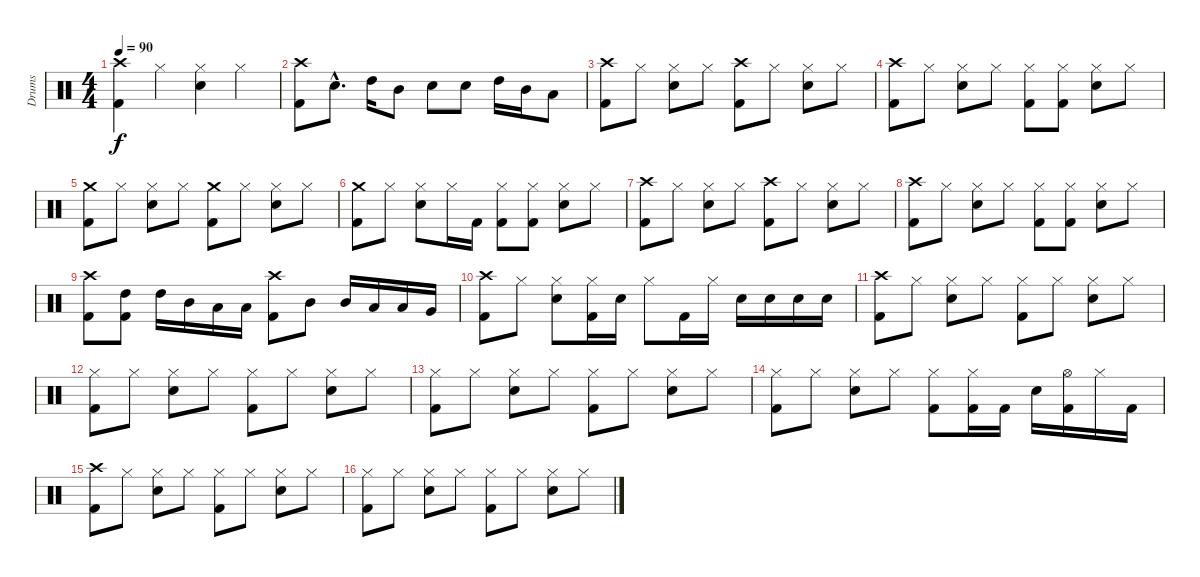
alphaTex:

\track ("Drums" "Drums") {instrument percussion}
\staff {score}
\articulation defaults
\ts (4 4)
\tempo 90
\clef neutral
\ks c
("Crash high (hit)" "Kick (hit) 2").4{dy f} "Hi-Hat (closed)".4 ("Hi-Hat (closed)" "Snare (hit) 2").4 "Hi-Hat (closed)".4 |
("Crash high (hit)" "Kick (hit) 2").8 "Snare (hit) 2"{hac}.8{d} "High Tom (hit)".16 "Mid Tom (hit)".8 "Snare (hit) 2".8 "Snare (hit) 2".8 "High Tom (hit)".16 "Mid Tom (hit)".16 "Low Tom (hit)".8 |
("Crash high (hit)" "Kick (hit) 2").8 "Hi-Hat (closed)".8 ("Hi-Hat (closed)" "Snare (hit) 2").8 "Hi-Hat (closed)".8 ("Crash high (hit)" "Kick (hit) 2").8 "Hi-Hat (closed)".8 ("Hi-Hat (closed)" "Snare (hit) 2").8 "Hi-Hat (closed)".8 |
("Crash high (hit)" "Kick (hit) 2").8 "Hi-Hat (closed)".8 ("Hi-Hat (closed)" "Snare (hit) 2").8 "Hi-Hat (closed)".8 ("Hi-Hat (closed)" "Kick (hit) 2").8 ("Hi-Hat (closed)" "Kick (hit) 2").8 ("Hi-Hat (closed)" "Snare (hit) 2").8 "Hi-Hat (closed)".8 |
("Crash medium (hit)" "Kick (hit) 2").8 "Hi-Hat (closed)".8 ("Hi-Hat (closed)" "Snare (hit) 2").8 "Hi-Hat (closed)".8 ("Crash medium (hit)" "Kick (hit) 2").8 "Hi-Hat (closed)".8 ("Hi-Hat (closed)" "Snare (hit) 2").8 "Hi-Hat (closed)".8 |
("Crash medium (hit)" "Kick (hit) 2").8 "Hi-Hat (closed)".8 ("Hi-Hat (closed)" "Snare (hit) 2").8 "Hi-Hat (closed)".16 "Kick (hit) 2".16 ("Hi-Hat (closed)" "Kick (hit) 2").8 ("Hi-Hat (closed)" "Kick (hit) 2").8 ("Hi-Hat (closed)" "Snare (hit) 2").8 "Hi-Hat (closed)".8 |
("Crash high (hit)" "Kick (hit) 2").8 "Hi-Hat (closed)".8 ("Hi-Hat (closed)" "Snare (hit) 2").8 "Hi-Hat (closed)".8 ("Crash high (hit)" "Kick (hit) 2").8 "Hi-Hat (closed)".8 ("Hi-Hat (closed)" "Snare (hit) 2").8 "Hi-Hat (closed)".8 |
("Crash high (hit)" "Kick (hit) 2").8 "Hi-Hat (closed)".8 ("Hi-Hat (closed)" "Snare (hit) 2").8 "Hi-Hat (closed)".8 ("Hi-Hat (closed)" "Kick (hit) 2").8 ("Hi-Hat (closed)" "Kick (hit) 2").8 ("Hi-Hat (closed)" "Snare (hit) 2").8 "Hi-Hat (closed)".8 |
("Crash high (hit)" "Kick (hit) 2").8 ("High Tom (hit)" "Kick (hit) 2").8 "High Tom (hit)".16 "Mid Tom (hit)".16 "Low Tom (hit)".16 "Low Floor Tom (hit)".16 ("Crash high (hit)" "Kick (hit) 2").8 "Mid Tom (hit)".8 "Mid Tom (hit)".16 "Low Tom (hit)".16 "Low Floor Tom (hit)".16 "Very Low Tom (hit)".16 |
("Crash high (hit)" "Kick (hit) 2").8 "Hi-Hat (closed)".8 ("Hi-Hat (closed)" "Snare (hit) 2").8 ("Hi-Hat (closed)" "Kick (hit) 2").16 "Snare (hit) 2".16 "Hi-Hat (closed)".8 "Kick (hit) 2".16 "Hi-Hat (closed)".16 "Snare (hit) 2".16 "Snare (hit) 2".16 "Snare (hit) 2".16 "Snare (hit) 2".16 |
("Crash high (hit)" "Kick (hit) 2").8 "Hi-Hat (closed)".8 ("Hi-Hat (closed)" "Snare (hit) 2").8 "Hi-Hat (closed)".8 ("Hi-Hat (closed)" "Kick (hit) 2").8 "Hi-Hat (closed)".8 ("Hi-Hat (closed)" "Snare (hit) 2").8 "Hi-Hat (closed)".8 |
("Hi-Hat (closed)" "Kick (hit) 2").8 "Hi-Hat (closed)".8 ("Hi-Hat (closed)" "Snare (hit) 2").8 "Hi-Hat (closed)".8 ("Hi-Hat (closed)" "Kick (hit) 2").8 "Hi-Hat (closed)".8 ("Hi-Hat (closed)" "Snare (hit) 2").8 "Hi-Hat (closed)".8 |
("Hi-Hat (closed)" "Kick (hit) 2").8 "Hi-Hat (closed)".8 ("Hi-Hat (closed)" "Snare (hit) 2").8 "Hi-Hat (closed)".8 ("Hi-Hat (closed)" "Kick (hit) 2").8 "Hi-Hat (closed)".8 ("Hi-Hat (closed)" "Snare (hit) 2").8 "Hi-Hat (closed)".8 |
("Hi-Hat (closed)" "Kick (hit) 2").8 "Hi-Hat (closed)".8 ("Hi-Hat (closed)" "Snare (hit) 2").8 "Hi-Hat (closed)".8 ("Hi-Hat (closed)" "Kick (hit) 2").8 ("Hi-Hat (closed)" "Kick (hit) 2").16 "Kick (hit) 2".16 "Snare (hit) 2".16 ("Hi-Hat (open)" "Kick (hit) 2").16 "Hi-Hat (closed)".16 "Kick (hit) 2".16 |
("Crash high (hit)" "Kick (hit) 2").8 "Hi-Hat (closed)".8 ("Hi-Hat (closed)" "Snare (hit) 2").8 "Hi-Hat (closed)".8 ("Hi-Hat (closed)" "Kick (hit) 2").8 "Hi-Hat (closed)".8 ("Hi-Hat (closed)" "Snare (hit) 2").8 "Hi-Hat (closed)".8 |
("Hi-Hat (closed)" "Kick (hit) 2").8 "Hi-Hat (closed)".8 ("Hi-Hat (closed)" "Snare (hit) 2").8 "Hi-Hat (closed)".8 ("Hi-Hat (closed)" "Kick (hit) 2").8 "Hi-Hat (closed)".8 ("Hi-Hat (closed)" "Snare (hit) 2").8 "Hi-Hat (closed)".8
